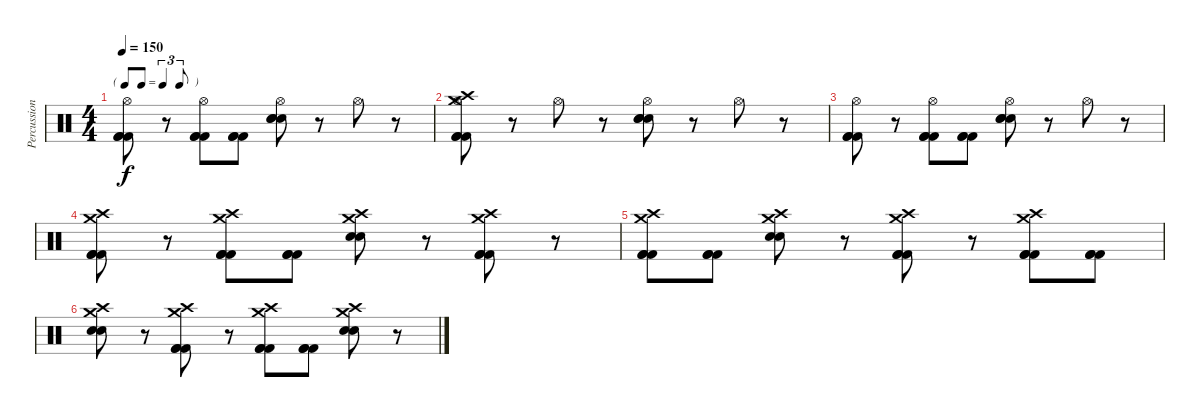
\track ("Percussion" "Percussion") {instrument percussion}
\staff {score}
\articulation defaults
\ts (4 4)
\tf triplet8th
\tempo 150
\clef neutral
\ks c
("Hi-Hat (open)" "Kick (hit) 2" "Kick (hit) 2" "Kick (hit) 2").8{dy f} r.8 ("Hi-Hat (open)" "Kick (hit) 2" "Kick (hit) 2" "Kick (hit) 2").8 ("Kick (hit) 2" "Kick (hit) 2" "Kick (hit) 2").8 ("Hi-Hat (open)" "Electric Snare (hit)" "Electric Snare (hit)" "Electric Snare (hit)").8 r.8 "Hi-Hat (open)".8 r.8 |
("Hi-Hat (open)" "Crash medium (hit)" "Crash high (hit)" "Kick (hit) 2" "Kick (hit) 2" "Kick (hit) 2").8 r.8 "Hi-Hat (open)".8 r.8 ("Hi-Hat (open)" "Electric Snare (hit)" "Electric Snare (hit)" "Electric Snare (hit)").8 r.8 "Hi-Hat (open)".8 r.8 |
("Hi-Hat (open)" "Kick (hit) 2" "Kick (hit) 2" "Kick (hit) 2").8 r.8 ("Hi-Hat (open)" "Kick (hit) 2" "Kick (hit) 2" "Kick (hit) 2").8 ("Kick (hit) 2" "Kick (hit) 2" "Kick (hit) 2").8 ("Hi-Hat (open)" "Electric Snare (hit)" "Electric Snare (hit)" "Electric Snare (hit)").8 r.8 "Hi-Hat (open)".8 r.8 |
("Crash high (hit)" "Crash medium (hit)" "Kick (hit) 2" "Kick (hit) 2" "Kick (hit) 2").8 r.8 ("Crash high (hit)" "Crash medium (hit)" "Kick (hit) 2" "Kick (hit) 2" "Kick (hit) 2").8 ("Kick (hit) 2" "Kick (hit) 2" "Kick (hit) 2").8 ("Crash high (hit)" "Crash medium (hit)" "Electric Snare (hit)" "Electric Snare (hit)").8 r.8 ("Crash high (hit)" "Crash medium (hit)" "Kick (hit) 2" "Kick (hit) 2" "Kick (hit) 2").8 r.8 |
("Crash high (hit)" "Crash medium (hit)" "Kick (hit) 2" "Kick (hit) 2" "Kick (hit) 2").8 ("Kick (hit) 2" "Kick (hit) 2" "Kick (hit) 2").8 ("Crash high (hit)" "Crash medium (hit)" "Electric Snare (hit)" "Electric Snare (hit)").8 r.8 ("Crash high (hit)" "Crash medium (hit)" "Kick (hit) 2" "Kick (hit) 2" "Kick (hit) 2").8 r.8 ("Crash high (hit)" "Crash medium (hit)" "Kick (hit) 2" "Kick (hit) 2" "Kick (hit) 2").8 ("Kick (hit) 2" "Kick (hit) 2" "Kick (hit) 2").8 |
("Crash high (hit)" "Crash medium (hit)" "Electric Snare (hit)" "Electric Snare (hit)").8 r.8 ("Crash high (hit)" "Crash medium (hit)" "Kick (hit) 2" "Kick (hit) 2" "Kick (hit) 2").8 r.8 ("Crash high (hit)" "Crash medium (hit)" "Kick (hit) 2" "Kick (hit) 2" "Kick (hit) 2").8 ("Kick (hit) 2" "Kick (hit) 2" "Kick (hit) 2").8 ("Crash high (hit)" "Crash medium (hit)" "Electric Snare (hit)" "Electric Snare (hit)").8 r.8
